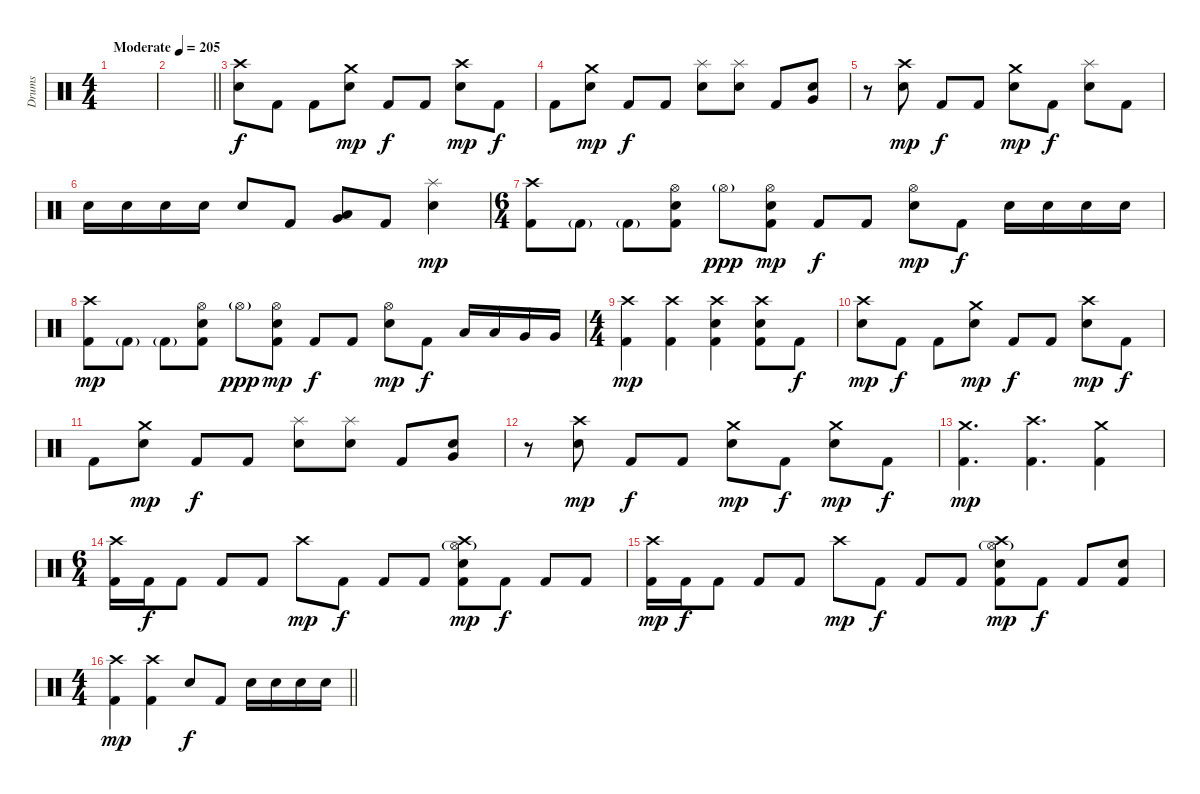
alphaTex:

\track ("Drums" "Drums") {instrument percussion}
\staff {score}
\articulation defaults
\ts (4 4)
\tempo (205 "Moderate")
\clef neutral
\ks c
|
\barLineRight lightlight
|
("Crash high (hit)" "Electric Snare (hit)").8 "Kick (hit) 2".8{dy f} "Kick (hit) 2".8 ("Crash medium (hit)" "Electric Snare (hit)").8{dy mp} "Kick (hit) 2".8{dy f} "Kick (hit) 2".8 ("Crash high (hit)" "Electric Snare (hit)").8{dy mp} "Kick (hit) 2".8{dy f} |
"Kick (hit) 2".8 ("Crash medium (hit)" "Electric Snare (hit)").8{dy mp} "Kick (hit) 2".8{dy f} "Kick (hit) 2".8 ("Splash (hit)" "Electric Snare (hit)").8 ("Splash (hit)" "Electric Snare (hit)").8 "Kick (hit) 2".8 ("Electric Snare (hit)" "Very Low Tom (hit)").8 |
r.8 ("Crash high (hit)" "Electric Snare (hit)").8{dy mp} "Kick (hit) 2".8{dy f} "Kick (hit) 2".8 ("Crash medium (hit)" "Electric Snare (hit)").8{dy mp} "Kick (hit) 2".8{dy f} ("Splash (hit)" "Electric Snare (hit)").8 "Kick (hit) 2".8 |
"Electric Snare (hit)".16 "Electric Snare (hit)".16 "Electric Snare (hit)".16 "Electric Snare (hit)".16 "Electric Snare (hit)".8 "Kick (hit) 2".8 ("Low Tom (hit)" "Very Low Tom (hit)").8 "Kick (hit) 2".8 ("Splash (hit)" "Electric Snare (hit)").4{dy mp} |
\ts (6 4)
("Crash high (hit)" "Kick (hit) 2").8 "Kick (hit) 2"{g}.8 "Kick (hit) 2"{g}.8 ("Hi-Hat (open)" "Electric Snare (hit)" "Kick (hit) 2").8 "Hi-Hat (open)"{g}.8{dy ppp} ("Hi-Hat (open)" "Electric Snare (hit)" "Kick (hit) 2").8{dy mp} "Kick (hit) 2".8{dy f} "Kick (hit) 2".8 ("Hi-Hat (open)" "Electric Snare (hit)").8{dy mp} "Kick (hit) 2".8{dy f} "Electric Snare (hit)".16 "Electric Snare (hit)".16 "Electric Snare (hit)".16 "Electric Snare (hit)".16 |
("Crash high (hit)" "Kick (hit) 2").8{dy mp} "Kick (hit) 2"{g}.8 "Kick (hit) 2"{g}.8 ("Hi-Hat (open)" "Electric Snare (hit)" "Kick (hit) 2").8 "Hi-Hat (open)"{g}.8{dy ppp} ("Hi-Hat (open)" "Electric Snare (hit)" "Kick (hit) 2").8{dy mp} "Kick (hit) 2".8{dy f} "Kick (hit) 2".8 ("Hi-Hat (open)" "Electric Snare (hit)").8{dy mp} "Kick (hit) 2".8{dy f} "Low Tom (hit)".16 "Low Tom (hit)".16 "Very Low Tom (hit)".16 "Very Low Tom (hit)".16 |
\ts (4 4)
("Crash high (hit)" "Kick (hit) 2").4{dy mp} ("Crash high (hit)" "Kick (hit) 2").4 ("Crash high (hit)" "Electric Snare (hit)" "Kick (hit) 2").4 ("Crash high (hit)" "Electric Snare (hit)" "Kick (hit) 2").8 "Kick (hit) 2".8{dy f} |
("Crash high (hit)" "Electric Snare (hit)").8{dy mp} "Kick (hit) 2".8{dy f} "Kick (hit) 2".8 ("Crash medium (hit)" "Electric Snare (hit)").8{dy mp} "Kick (hit) 2".8{dy f} "Kick (hit) 2".8 ("Crash high (hit)" "Electric Snare (hit)").8{dy mp} "Kick (hit) 2".8{dy f} |
"Kick (hit) 2".8 ("Crash medium (hit)" "Electric Snare (hit)").8{dy mp} "Kick (hit) 2".8{dy f} "Kick (hit) 2".8 ("Splash (hit)" "Electric Snare (hit)").8 ("Splash (hit)" "Electric Snare (hit)").8 "Kick (hit) 2".8 ("Electric Snare (hit)" "Very Low Tom (hit)").8 |
r.8 ("Crash high (hit)" "Electric Snare (hit)").8{dy mp} "Kick (hit) 2".8{dy f} "Kick (hit) 2".8 ("Crash medium (hit)" "Electric Snare (hit)").8{dy mp} "Kick (hit) 2".8{dy f} ("Crash medium (hit)" "Electric Snare (hit)").8{dy mp} "Kick (hit) 2".8{dy f} |
("Crash medium (hit)" "Kick (hit) 2").4{d dy mp} ("Crash high (hit)" "Kick (hit) 2").4{d} ("Crash medium (hit)" "Kick (hit) 2").4 |
\ts (6 4)
("Crash high (hit)" "Kick (hit) 2").16 "Kick (hit) 2".16{dy f} "Kick (hit) 2".8 "Kick (hit) 2".8 "Kick (hit) 2".8 "Crash high (hit)".8{dy mp} "Kick (hit) 2".8{dy f} "Kick (hit) 2".8 "Kick (hit) 2".8 ("Crash high (hit)" "Hi-Hat (open)"{g} "Electric Snare (hit)" "Kick (hit) 2").8{dy mp} "Kick (hit) 2".8{dy f} "Kick (hit) 2".8 "Kick (hit) 2".8 |
("Crash high (hit)" "Kick (hit) 2").16{dy mp} "Kick (hit) 2".16{dy f} "Kick (hit) 2".8 "Kick (hit) 2".8 "Kick (hit) 2".8 "Crash high (hit)".8{dy mp} "Kick (hit) 2".8{dy f} "Kick (hit) 2".8 "Kick (hit) 2".8 ("Crash high (hit)" "Hi-Hat (open)"{g} "Electric Snare (hit)" "Kick (hit) 2").8{dy mp} "Kick (hit) 2".8{dy f} "Kick (hit) 2".8 ("Electric Snare (hit)" "Kick (hit) 2").8 |
\ts (4 4)
\barLineRight lightlight
("Crash high (hit)" "Kick (hit) 2").4{dy mp} ("Crash high (hit)" "Kick (hit) 2").4 "Electric Snare (hit)".8{dy f} "Kick (hit) 2".8 "Electric Snare (hit)".16 "Electric Snare (hit)".16 "Electric Snare (hit)".16 "Electric Snare (hit)".16
